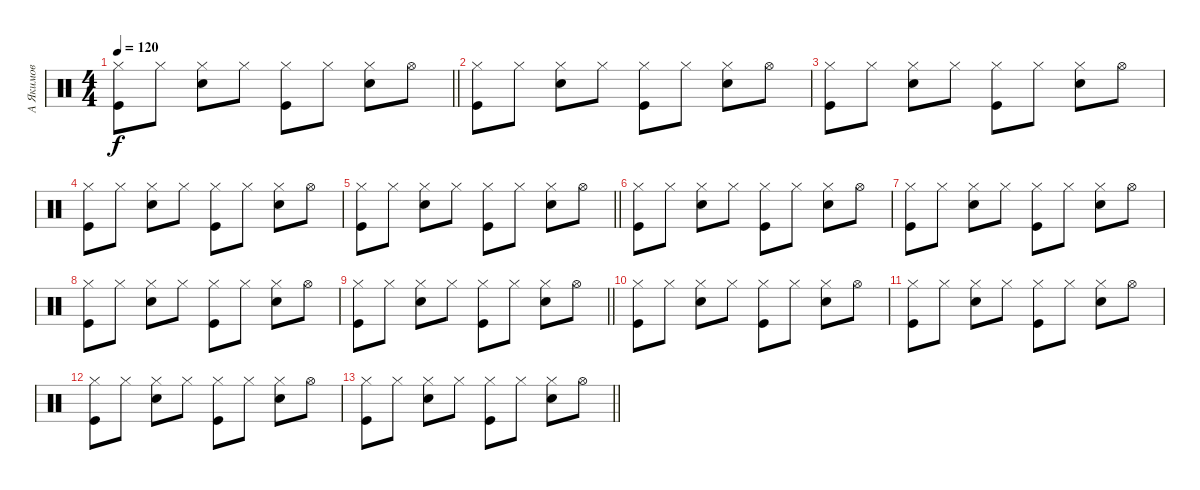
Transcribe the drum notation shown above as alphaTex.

\track ("А Якимов" "А Якимов") {instrument percussion}
\staff {score}
\articulation defaults
\ts (4 4)
\tempo 120
\clef neutral
\barLineRight lightlight
\ks c
("Hi-Hat (closed)" "Kick (hit)").8{dy f} "Hi-Hat (closed)".8 ("Hi-Hat (closed)" "Snare (hit) 2").8 "Hi-Hat (closed)".8 ("Hi-Hat (closed)" "Kick (hit)").8 "Hi-Hat (closed)".8 ("Snare (hit) 2" "Hi-Hat (closed)").8 "Hi-Hat (open)".8 |
("Hi-Hat (closed)" "Kick (hit)").8 "Hi-Hat (closed)".8 ("Hi-Hat (closed)" "Snare (hit) 2").8 "Hi-Hat (closed)".8 ("Hi-Hat (closed)" "Kick (hit)").8 "Hi-Hat (closed)".8 ("Snare (hit) 2" "Hi-Hat (closed)").8 "Hi-Hat (open)".8 |
("Hi-Hat (closed)" "Kick (hit)").8 "Hi-Hat (closed)".8 ("Hi-Hat (closed)" "Snare (hit) 2").8 "Hi-Hat (closed)".8 ("Hi-Hat (closed)" "Kick (hit)").8 "Hi-Hat (closed)".8 ("Snare (hit) 2" "Hi-Hat (closed)").8 "Hi-Hat (open)".8 |
("Hi-Hat (closed)" "Kick (hit)").8 "Hi-Hat (closed)".8 ("Hi-Hat (closed)" "Snare (hit) 2").8 "Hi-Hat (closed)".8 ("Hi-Hat (closed)" "Kick (hit)").8 "Hi-Hat (closed)".8 ("Snare (hit) 2" "Hi-Hat (closed)").8 "Hi-Hat (open)".8 |
\barLineRight lightlight
("Hi-Hat (closed)" "Kick (hit)").8 "Hi-Hat (closed)".8 ("Hi-Hat (closed)" "Snare (hit) 2").8 "Hi-Hat (closed)".8 ("Hi-Hat (closed)" "Kick (hit)").8 "Hi-Hat (closed)".8 ("Snare (hit) 2" "Hi-Hat (closed)").8 "Hi-Hat (open)".8 |
("Hi-Hat (closed)" "Kick (hit)").8 "Hi-Hat (closed)".8 ("Hi-Hat (closed)" "Snare (hit) 2").8 "Hi-Hat (closed)".8 ("Hi-Hat (closed)" "Kick (hit)").8 "Hi-Hat (closed)".8 ("Snare (hit) 2" "Hi-Hat (closed)").8 "Hi-Hat (open)".8 |
("Hi-Hat (closed)" "Kick (hit)").8 "Hi-Hat (closed)".8 ("Hi-Hat (closed)" "Snare (hit) 2").8 "Hi-Hat (closed)".8 ("Hi-Hat (closed)" "Kick (hit)").8 "Hi-Hat (closed)".8 ("Snare (hit) 2" "Hi-Hat (closed)").8 "Hi-Hat (open)".8 |
("Hi-Hat (closed)" "Kick (hit)").8 "Hi-Hat (closed)".8 ("Hi-Hat (closed)" "Snare (hit) 2").8 "Hi-Hat (closed)".8 ("Hi-Hat (closed)" "Kick (hit)").8 "Hi-Hat (closed)".8 ("Snare (hit) 2" "Hi-Hat (closed)").8 "Hi-Hat (open)".8 |
\barLineRight lightlight
("Hi-Hat (closed)" "Kick (hit)").8 "Hi-Hat (closed)".8 ("Hi-Hat (closed)" "Snare (hit) 2").8 "Hi-Hat (closed)".8 ("Hi-Hat (closed)" "Kick (hit)").8 "Hi-Hat (closed)".8 ("Snare (hit) 2" "Hi-Hat (closed)").8 "Hi-Hat (open)".8 |
("Hi-Hat (closed)" "Kick (hit)").8 "Hi-Hat (closed)".8 ("Hi-Hat (closed)" "Snare (hit) 2").8 "Hi-Hat (closed)".8 ("Hi-Hat (closed)" "Kick (hit)").8 "Hi-Hat (closed)".8 ("Snare (hit) 2" "Hi-Hat (closed)").8 "Hi-Hat (open)".8 |
("Hi-Hat (closed)" "Kick (hit)").8 "Hi-Hat (closed)".8 ("Hi-Hat (closed)" "Snare (hit) 2").8 "Hi-Hat (closed)".8 ("Hi-Hat (closed)" "Kick (hit)").8 "Hi-Hat (closed)".8 ("Snare (hit) 2" "Hi-Hat (closed)").8 "Hi-Hat (open)".8 |
("Hi-Hat (closed)" "Kick (hit)").8 "Hi-Hat (closed)".8 ("Hi-Hat (closed)" "Snare (hit) 2").8 "Hi-Hat (closed)".8 ("Hi-Hat (closed)" "Kick (hit)").8 "Hi-Hat (closed)".8 ("Snare (hit) 2" "Hi-Hat (closed)").8 "Hi-Hat (open)".8 |
\barLineRight lightlight
("Hi-Hat (closed)" "Kick (hit)").8 "Hi-Hat (closed)".8 ("Hi-Hat (closed)" "Snare (hit) 2").8 "Hi-Hat (closed)".8 ("Hi-Hat (closed)" "Kick (hit)").8 "Hi-Hat (closed)".8 ("Snare (hit) 2" "Hi-Hat (closed)").8 "Hi-Hat (open)".8
